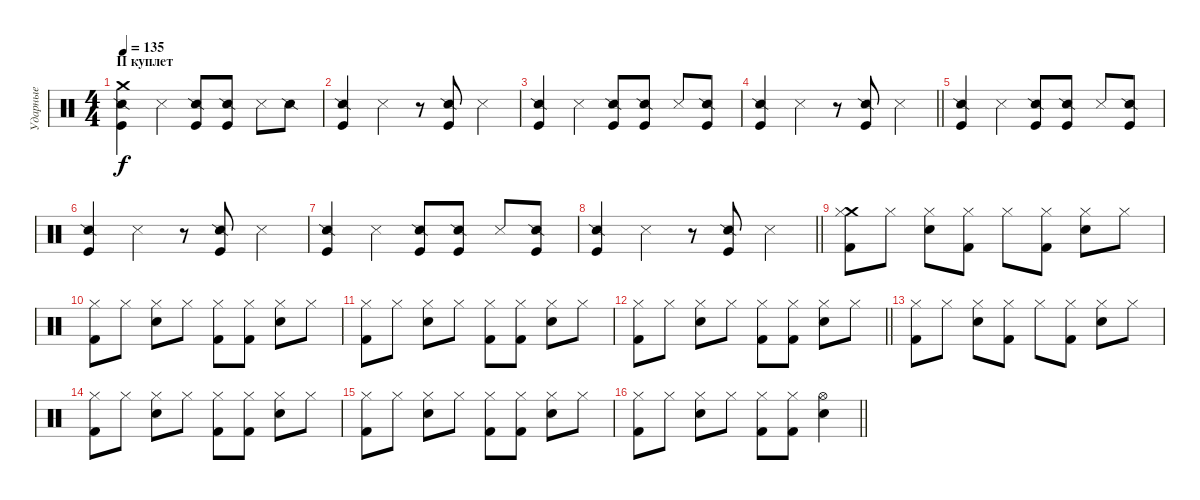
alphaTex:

\track ("Ударные" "Ударные") {instrument percussion}
\staff {score}
\articulation defaults
\ts (4 4)
\section ("" "II куплет")
\tempo 135
\clef neutral
\ks c
("Crash medium (hit)" "Snare (side stick) 2" "Kick (hit)").4{dy f} "Snare (side stick) 3".4 ("Snare (side stick) 2" "Kick (hit)").8 ("Snare (side stick) 2" "Kick (hit)").8 "Snare (side stick) 3".8 "Snare (side stick) 2".8 |
("Snare (side stick) 2" "Kick (hit)").4 "Snare (side stick) 3".4 r.8 ("Snare (side stick) 2" "Kick (hit)").8 "Snare (side stick) 3".4 |
("Snare (side stick) 2" "Kick (hit)").4 "Snare (side stick) 3".4 ("Snare (side stick) 2" "Kick (hit)").8 ("Snare (side stick) 2" "Kick (hit)").8 "Snare (side stick) 3".8 ("Snare (side stick) 2" "Kick (hit)").8 |
\barLineRight lightlight
("Snare (side stick) 2" "Kick (hit)").4 "Snare (side stick) 3".4 r.8 ("Snare (side stick) 2" "Kick (hit)").8 "Snare (side stick) 3".4 |
("Snare (side stick) 2" "Kick (hit)").4 "Snare (side stick) 3".4 ("Snare (side stick) 2" "Kick (hit)").8 ("Snare (side stick) 2" "Kick (hit)").8 "Snare (side stick) 3".8 ("Snare (side stick) 2" "Kick (hit)").8 |
("Snare (side stick) 2" "Kick (hit)").4 "Snare (side stick) 3".4 r.8 ("Snare (side stick) 2" "Kick (hit)").8 "Snare (side stick) 3".4 |
("Snare (side stick) 2" "Kick (hit)").4 "Snare (side stick) 3".4 ("Snare (side stick) 2" "Kick (hit)").8 ("Snare (side stick) 2" "Kick (hit)").8 "Snare (side stick) 3".8 ("Snare (side stick) 2" "Kick (hit)").8 |
\barLineRight lightlight
("Snare (side stick) 2" "Kick (hit)").4 "Snare (side stick) 3".4 r.8 ("Snare (side stick) 2" "Kick (hit)").8 "Snare (side stick) 3".4 |
("Crash medium (hit)" "Hi-Hat (closed)" "Kick (hit) 2").8 "Hi-Hat (closed)".8 ("Hi-Hat (closed)" "Electric Snare (hit)").8 ("Hi-Hat (closed)" "Kick (hit) 2").8 "Hi-Hat (closed)".8 ("Hi-Hat (closed)" "Kick (hit) 2").8 ("Hi-Hat (closed)" "Electric Snare (hit)").8 "Hi-Hat (closed)".8 |
("Hi-Hat (closed)" "Kick (hit) 2").8 "Hi-Hat (closed)".8 ("Hi-Hat (closed)" "Electric Snare (hit)").8 "Hi-Hat (closed)".8 ("Hi-Hat (closed)" "Kick (hit) 2").8 ("Hi-Hat (closed)" "Kick (hit) 2").8 ("Hi-Hat (closed)" "Electric Snare (hit)").8 "Hi-Hat (closed)".8 |
("Hi-Hat (closed)" "Kick (hit) 2").8 "Hi-Hat (closed)".8 ("Hi-Hat (closed)" "Electric Snare (hit)").8 "Hi-Hat (closed)".8 ("Hi-Hat (closed)" "Kick (hit) 2").8 ("Hi-Hat (closed)" "Kick (hit) 2").8 ("Hi-Hat (closed)" "Electric Snare (hit)").8 "Hi-Hat (closed)".8 |
\barLineRight lightlight
("Hi-Hat (closed)" "Kick (hit) 2").8 "Hi-Hat (closed)".8 ("Hi-Hat (closed)" "Electric Snare (hit)").8 "Hi-Hat (closed)".8 ("Hi-Hat (closed)" "Kick (hit) 2").8 ("Hi-Hat (closed)" "Kick (hit) 2").8 ("Hi-Hat (closed)" "Electric Snare (hit)").8 "Hi-Hat (closed)".8 |
("Hi-Hat (closed)" "Kick (hit) 2").8 "Hi-Hat (closed)".8 ("Hi-Hat (closed)" "Electric Snare (hit)").8 ("Hi-Hat (closed)" "Kick (hit) 2").8 "Hi-Hat (closed)".8 ("Hi-Hat (closed)" "Kick (hit) 2").8 ("Hi-Hat (closed)" "Electric Snare (hit)").8 "Hi-Hat (closed)".8 |
("Hi-Hat (closed)" "Kick (hit) 2").8 "Hi-Hat (closed)".8 ("Hi-Hat (closed)" "Electric Snare (hit)").8 "Hi-Hat (closed)".8 ("Hi-Hat (closed)" "Kick (hit) 2").8 ("Hi-Hat (closed)" "Kick (hit) 2").8 ("Hi-Hat (closed)" "Electric Snare (hit)").8 "Hi-Hat (closed)".8 |
("Hi-Hat (closed)" "Kick (hit) 2").8 "Hi-Hat (closed)".8 ("Hi-Hat (closed)" "Electric Snare (hit)").8 "Hi-Hat (closed)".8 ("Hi-Hat (closed)" "Kick (hit) 2").8 ("Hi-Hat (closed)" "Kick (hit) 2").8 ("Hi-Hat (closed)" "Electric Snare (hit)").8 "Hi-Hat (closed)".8 |
\barLineRight lightlight
("Hi-Hat (closed)" "Kick (hit) 2").8 "Hi-Hat (closed)".8 ("Hi-Hat (closed)" "Electric Snare (hit)").8 "Hi-Hat (closed)".8 ("Hi-Hat (closed)" "Kick (hit) 2").8 ("Hi-Hat (closed)" "Kick (hit) 2").8 ("Hi-Hat (open)" "Electric Snare (hit)").4
